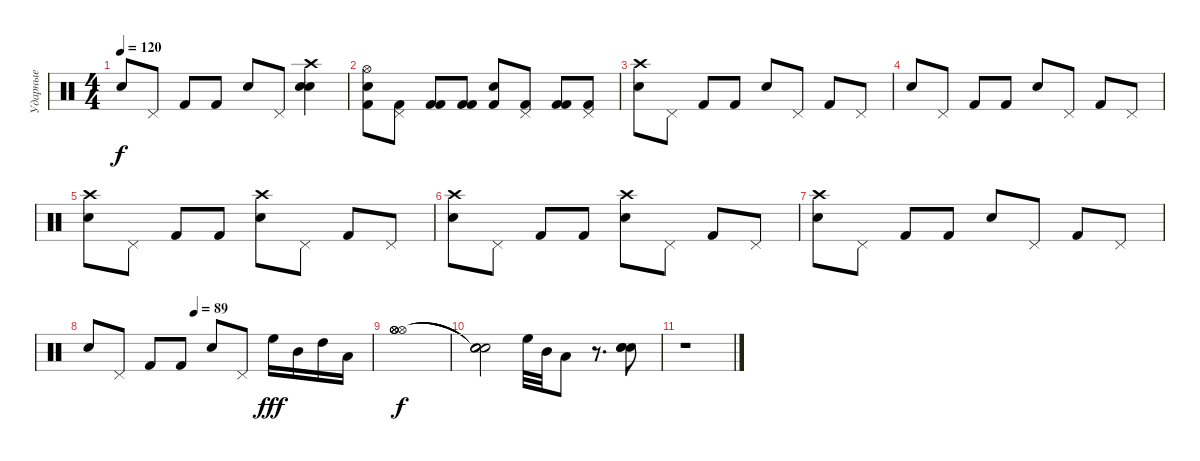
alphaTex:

\track ("Ударные" "Ударные") {instrument percussion}
\staff {score}
\articulation defaults
\ts (4 4)
\tempo 120
\clef neutral
\ks c "Electric Snare (hit)".8{dy f} "Pedal Hi-Hat (hit)".8 "Kick (hit) 2".8 "Kick (hit) 2".8 "Electric Snare (hit)".8 "Pedal Hi-Hat (hit)".8
("Electric Snare (hit)" "Snare (hit) 2" "Crash high (hit)").4 |
("Electric Snare (hit)" "Hi-Hat (open)" "Kick (hit) 2").8 ("Pedal Hi-Hat (hit)" "Kick (hit) 2").8 ("Kick (hit) 2" "Kick (hit) 2").8 ("Kick (hit) 2" "Kick (hit) 2").8 ("Electric Snare (hit)" "Kick (hit) 2").8 ("Pedal Hi-Hat (hit)" "Kick (hit) 2").8 ("Kick (hit) 2" "Kick (hit) 2").8 ("Pedal Hi-Hat (hit)" "Kick (hit) 2").8 |
("Electric Snare (hit)" "Crash high (hit)").8 "Pedal Hi-Hat (hit)".8 "Kick (hit) 2".8 "Kick (hit) 2".8 "Electric Snare (hit)".8 "Pedal Hi-Hat (hit)".8 "Kick (hit) 2".8 "Pedal Hi-Hat (hit)".8 |
"Electric Snare (hit)".8 "Pedal Hi-Hat (hit)".8 "Kick (hit) 2".8 "Kick (hit) 2".8 "Electric Snare (hit)".8 "Pedal Hi-Hat (hit)".8 "Kick (hit) 2".8 "Pedal Hi-Hat (hit)".8 |
("Electric Snare (hit)" "Crash high (hit)").8 "Pedal Hi-Hat (hit)".8 "Kick (hit) 2".8 "Kick (hit) 2".8 ("Electric Snare (hit)" "Crash high (hit)").8 "Pedal Hi-Hat (hit)".8 "Kick (hit) 2".8 "Pedal Hi-Hat (hit)".8 |
("Electric Snare (hit)" "Crash high (hit)").8 "Pedal Hi-Hat (hit)".8 "Kick (hit) 2".8 "Kick (hit) 2".8 ("Electric Snare (hit)" "Crash high (hit)").8 "Pedal Hi-Hat (hit)".8 "Kick (hit) 2".8 "Pedal Hi-Hat (hit)".8 |
("Electric Snare (hit)" "Crash high (hit)").8 "Pedal Hi-Hat (hit)".8 "Kick (hit) 2".8 "Kick (hit) 2".8 "Electric Snare (hit)".8 "Pedal Hi-Hat (hit)".8 "Kick (hit) 2".8 "Pedal Hi-Hat (hit)".8 |
\tempo (89 0.375)
"Electric Snare (hit)".8 "Pedal Hi-Hat (hit)".8 "Kick (hit) 2".8 "Kick (hit) 2".8 "Electric Snare (hit)".8 "Pedal Hi-Hat (hit)".8 "High Floor Tom (hit)".16{dy fff} "Mid Tom (hit)".16 "High Tom (hit)".16 "Low Tom (hit)".16 |
("Hi-Hat (open)" "Hi-Hat (open)" "Hi-Hat (open)" "Hi-Hat (open)").1{bd 240 dy f} |
("Snare (hit)"{t} "Snare (hit)"{t} "Snare (hit)"{t} "Snare (hit)"{t}).2 "High Floor Tom (hit)".32 "Mid Tom (hit)".32 "Low Tom (hit)".8 r.8{d} ("Snare (hit) 2" "Snare (hit) 2" "Snare (hit) 2").8 |
r.1
